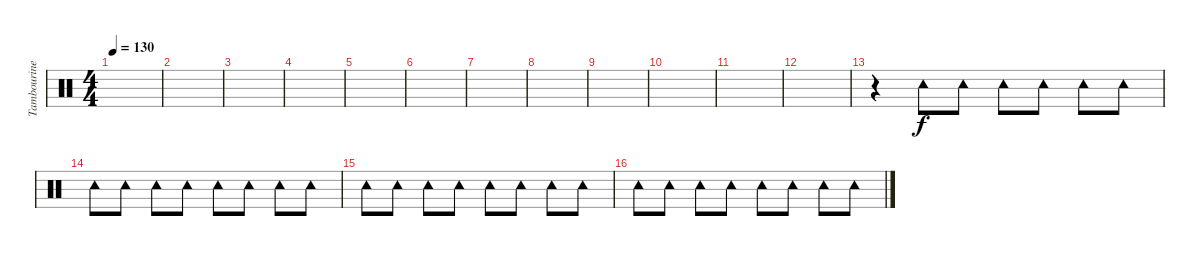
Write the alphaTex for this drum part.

\track ("Tambourine" "Tambourine") {instrument percussion}
\staff {score}
\articulation defaults
\ts (4 4)
\tempo 130
\clef neutral
\ks c
|
|
|
|
|
|
|
|
|
|
|
|
r.4 "Tambourine (hit)".8 "Tambourine (hit)".8 "Tambourine (hit)".8 "Tambourine (hit)".8 "Tambourine (hit)".8 "Tambourine (hit)".8 |
"Tambourine (hit)".8 "Tambourine (hit)".8 "Tambourine (hit)".8 "Tambourine (hit)".8 "Tambourine (hit)".8 "Tambourine (hit)".8 "Tambourine (hit)".8 "Tambourine (hit)".8 |
"Tambourine (hit)".8 "Tambourine (hit)".8 "Tambourine (hit)".8 "Tambourine (hit)".8 "Tambourine (hit)".8 "Tambourine (hit)".8 "Tambourine (hit)".8 "Tambourine (hit)".8 |
"Tambourine (hit)".8 "Tambourine (hit)".8 "Tambourine (hit)".8 "Tambourine (hit)".8 "Tambourine (hit)".8 "Tambourine (hit)".8 "Tambourine (hit)".8 "Tambourine (hit)".8
